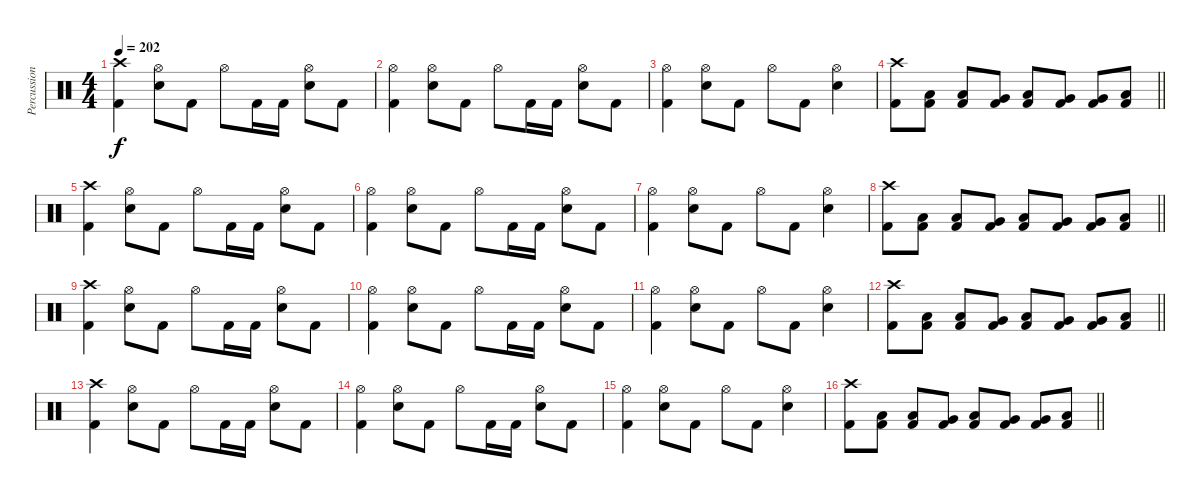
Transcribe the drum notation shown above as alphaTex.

\track ("Percussion" "Percussion") {instrument percussion}
\staff {score}
\articulation defaults
\ts (4 4)
\tempo 202
\clef neutral
\ks c
("Crash high (hit)" "Kick (hit) 2").4{dy f} ("Hi-Hat (open)" "Electric Snare (hit)").8 "Kick (hit) 2".8 "Hi-Hat (open)".8 "Kick (hit) 2".16 "Kick (hit) 2".16 ("Hi-Hat (open)" "Electric Snare (hit)").8 "Kick (hit) 2".8 |
("Hi-Hat (open)" "Kick (hit) 2").4 ("Hi-Hat (open)" "Electric Snare (hit)").8 "Kick (hit) 2".8 "Hi-Hat (open)".8 "Kick (hit) 2".16 "Kick (hit) 2".16 ("Hi-Hat (open)" "Electric Snare (hit)").8 "Kick (hit) 2".8 |
("Hi-Hat (open)" "Kick (hit) 2").4 ("Hi-Hat (open)" "Electric Snare (hit)").8 "Kick (hit) 2".8 "Hi-Hat (open)".8 "Kick (hit) 2".8 ("Hi-Hat (open)" "Electric Snare (hit)").4 |
\barLineRight lightlight
("Crash high (hit)" "Kick (hit) 2").8 ("Low Tom (hit)" "Kick (hit) 2").8 ("Low Tom (hit)" "Kick (hit) 2").8 ("Very Low Tom (hit)" "Kick (hit) 2").8 ("Low Tom (hit)" "Kick (hit) 2").8 ("Very Low Tom (hit)" "Kick (hit) 2").8 ("Very Low Tom (hit)" "Kick (hit) 2").8 ("Low Floor Tom (hit)" "Kick (hit) 2").8 |
("Crash high (hit)" "Kick (hit) 2").4 ("Hi-Hat (open)" "Electric Snare (hit)").8 "Kick (hit) 2".8 "Hi-Hat (open)".8 "Kick (hit) 2".16 "Kick (hit) 2".16 ("Hi-Hat (open)" "Electric Snare (hit)").8 "Kick (hit) 2".8 |
("Hi-Hat (open)" "Kick (hit) 2").4 ("Hi-Hat (open)" "Electric Snare (hit)").8 "Kick (hit) 2".8 "Hi-Hat (open)".8 "Kick (hit) 2".16 "Kick (hit) 2".16 ("Hi-Hat (open)" "Electric Snare (hit)").8 "Kick (hit) 2".8 |
("Hi-Hat (open)" "Kick (hit) 2").4 ("Hi-Hat (open)" "Electric Snare (hit)").8 "Kick (hit) 2".8 "Hi-Hat (open)".8 "Kick (hit) 2".8 ("Hi-Hat (open)" "Electric Snare (hit)").4 |
\barLineRight lightlight
("Crash high (hit)" "Kick (hit) 2").8 ("Low Tom (hit)" "Kick (hit) 2").8 ("Low Tom (hit)" "Kick (hit) 2").8 ("Very Low Tom (hit)" "Kick (hit) 2").8 ("Low Tom (hit)" "Kick (hit) 2").8 ("Very Low Tom (hit)" "Kick (hit) 2").8 ("Very Low Tom (hit)" "Kick (hit) 2").8 ("Low Floor Tom (hit)" "Kick (hit) 2").8 |
("Crash high (hit)" "Kick (hit) 2").4 ("Hi-Hat (open)" "Electric Snare (hit)").8 "Kick (hit) 2".8 "Hi-Hat (open)".8 "Kick (hit) 2".16 "Kick (hit) 2".16 ("Hi-Hat (open)" "Electric Snare (hit)").8 "Kick (hit) 2".8 |
("Hi-Hat (open)" "Kick (hit) 2").4 ("Hi-Hat (open)" "Electric Snare (hit)").8 "Kick (hit) 2".8 "Hi-Hat (open)".8 "Kick (hit) 2".16 "Kick (hit) 2".16 ("Hi-Hat (open)" "Electric Snare (hit)").8 "Kick (hit) 2".8 |
("Hi-Hat (open)" "Kick (hit) 2").4 ("Hi-Hat (open)" "Electric Snare (hit)").8 "Kick (hit) 2".8 "Hi-Hat (open)".8 "Kick (hit) 2".8 ("Hi-Hat (open)" "Electric Snare (hit)").4 |
\barLineRight lightlight
("Crash high (hit)" "Kick (hit) 2").8 ("Low Tom (hit)" "Kick (hit) 2").8 ("Low Tom (hit)" "Kick (hit) 2").8 ("Very Low Tom (hit)" "Kick (hit) 2").8 ("Low Tom (hit)" "Kick (hit) 2").8 ("Very Low Tom (hit)" "Kick (hit) 2").8 ("Very Low Tom (hit)" "Kick (hit) 2").8 ("Low Floor Tom (hit)" "Kick (hit) 2").8 |
("Crash high (hit)" "Kick (hit) 2").4 ("Hi-Hat (open)" "Electric Snare (hit)").8 "Kick (hit) 2".8 "Hi-Hat (open)".8 "Kick (hit) 2".16 "Kick (hit) 2".16 ("Hi-Hat (open)" "Electric Snare (hit)").8 "Kick (hit) 2".8 |
("Hi-Hat (open)" "Kick (hit) 2").4 ("Hi-Hat (open)" "Electric Snare (hit)").8 "Kick (hit) 2".8 "Hi-Hat (open)".8 "Kick (hit) 2".16 "Kick (hit) 2".16 ("Hi-Hat (open)" "Electric Snare (hit)").8 "Kick (hit) 2".8 |
("Hi-Hat (open)" "Kick (hit) 2").4 ("Hi-Hat (open)" "Electric Snare (hit)").8 "Kick (hit) 2".8 "Hi-Hat (open)".8 "Kick (hit) 2".8 ("Hi-Hat (open)" "Electric Snare (hit)").4 |
\barLineRight lightlight
("Crash high (hit)" "Kick (hit) 2").8 ("Low Tom (hit)" "Kick (hit) 2").8 ("Low Tom (hit)" "Kick (hit) 2").8 ("Very Low Tom (hit)" "Kick (hit) 2").8 ("Low Tom (hit)" "Kick (hit) 2").8 ("Very Low Tom (hit)" "Kick (hit) 2").8 ("Very Low Tom (hit)" "Kick (hit) 2").8 ("Low Floor Tom (hit)" "Kick (hit) 2").8
